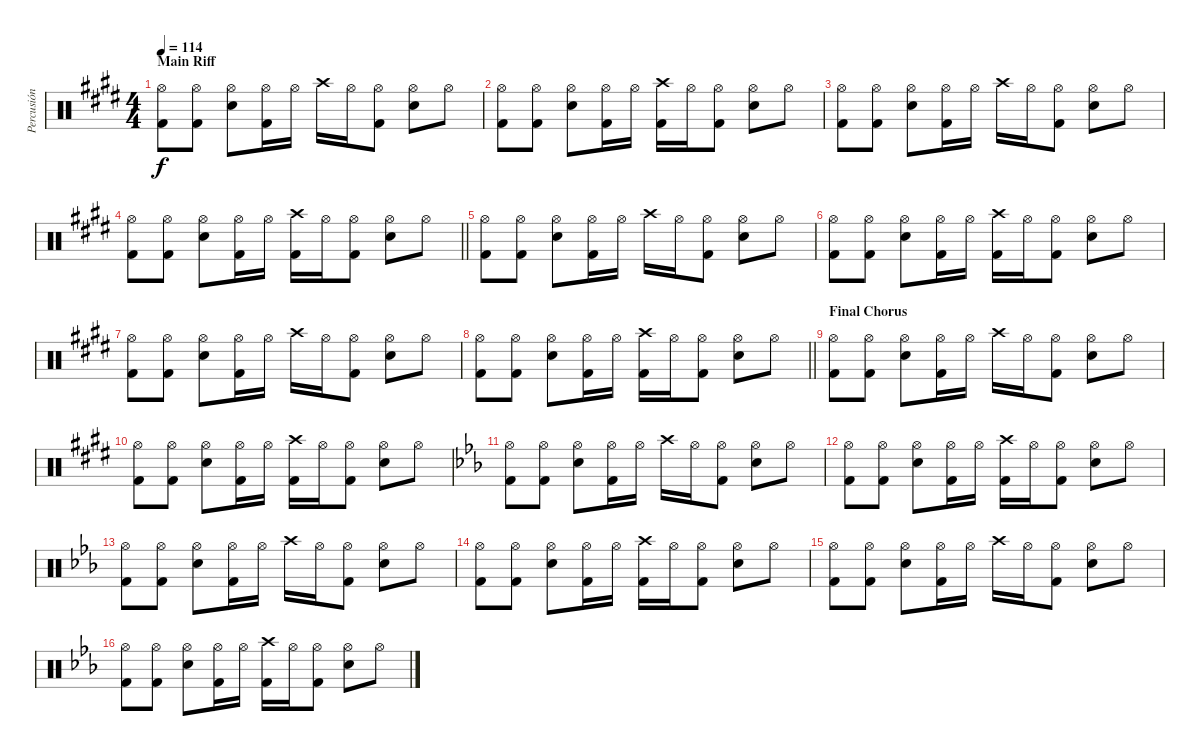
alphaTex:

\track ("Percusión" "Percusión") {instrument percussion}
\staff {score}
\articulation defaults
\ts (4 4)
\section ("" "Main Riff")
\tempo 114
\clef neutral
\ks c#minor
("Hi-Hat (open)" "Kick (hit) 2").8{dy f} ("Hi-Hat (open)" "Kick (hit) 2").8 ("Hi-Hat (open)" "Snare (hit) 2").8 ("Hi-Hat (open)" "Kick (hit) 2").16 "Hi-Hat (open)".16 "Crash high (hit)".16 "Hi-Hat (open)".16 ("Hi-Hat (open)" "Kick (hit) 2").8 ("Hi-Hat (open)" "Snare (hit) 2").8 "Hi-Hat (open)".8 |
("Hi-Hat (open)" "Kick (hit) 2").8 ("Hi-Hat (open)" "Kick (hit) 2").8 ("Hi-Hat (open)" "Snare (hit) 2").8 ("Hi-Hat (open)" "Kick (hit) 2").16 "Hi-Hat (open)".16 ("Crash high (hit)" "Kick (hit) 2").16 "Hi-Hat (open)".16 ("Hi-Hat (open)" "Kick (hit) 2").8 ("Hi-Hat (open)" "Snare (hit) 2").8 "Hi-Hat (open)".8 |
\ks e
("Hi-Hat (open)" "Kick (hit) 2").8 ("Hi-Hat (open)" "Kick (hit) 2").8 ("Hi-Hat (open)" "Snare (hit) 2").8 ("Hi-Hat (open)" "Kick (hit) 2").16 "Hi-Hat (open)".16 "Crash high (hit)".16 "Hi-Hat (open)".16 ("Hi-Hat (open)" "Kick (hit) 2").8 ("Hi-Hat (open)" "Snare (hit) 2").8 "Hi-Hat (open)".8 |
\barLineRight lightlight
\ks c#minor
("Hi-Hat (open)" "Kick (hit) 2").8 ("Hi-Hat (open)" "Kick (hit) 2").8 ("Hi-Hat (open)" "Snare (hit) 2").8 ("Hi-Hat (open)" "Kick (hit) 2").16 "Hi-Hat (open)".16 ("Crash high (hit)" "Kick (hit) 2").16 "Hi-Hat (open)".16 ("Hi-Hat (open)" "Kick (hit) 2").8 ("Hi-Hat (open)" "Snare (hit) 2").8 "Hi-Hat (open)".8 |
("Hi-Hat (open)" "Kick (hit) 2").8 ("Hi-Hat (open)" "Kick (hit) 2").8 ("Hi-Hat (open)" "Snare (hit) 2").8 ("Hi-Hat (open)" "Kick (hit) 2").16 "Hi-Hat (open)".16 "Crash high (hit)".16 "Hi-Hat (open)".16 ("Hi-Hat (open)" "Kick (hit) 2").8 ("Hi-Hat (open)" "Snare (hit) 2").8 "Hi-Hat (open)".8 |
("Hi-Hat (open)" "Kick (hit) 2").8 ("Hi-Hat (open)" "Kick (hit) 2").8 ("Hi-Hat (open)" "Snare (hit) 2").8 ("Hi-Hat (open)" "Kick (hit) 2").16 "Hi-Hat (open)".16 ("Crash high (hit)" "Kick (hit) 2").16 "Hi-Hat (open)".16 ("Hi-Hat (open)" "Kick (hit) 2").8 ("Hi-Hat (open)" "Snare (hit) 2").8 "Hi-Hat (open)".8 |
\ks e
("Hi-Hat (open)" "Kick (hit) 2").8 ("Hi-Hat (open)" "Kick (hit) 2").8 ("Hi-Hat (open)" "Snare (hit) 2").8 ("Hi-Hat (open)" "Kick (hit) 2").16 "Hi-Hat (open)".16 "Crash high (hit)".16 "Hi-Hat (open)".16 ("Hi-Hat (open)" "Kick (hit) 2").8 ("Hi-Hat (open)" "Snare (hit) 2").8 "Hi-Hat (open)".8 |
\barLineRight lightlight
\ks c#minor
("Hi-Hat (open)" "Kick (hit) 2").8 ("Hi-Hat (open)" "Kick (hit) 2").8 ("Hi-Hat (open)" "Snare (hit) 2").8 ("Hi-Hat (open)" "Kick (hit) 2").16 "Hi-Hat (open)".16 ("Crash high (hit)" "Kick (hit) 2").16 "Hi-Hat (open)".16 ("Hi-Hat (open)" "Kick (hit) 2").8 ("Hi-Hat (open)" "Snare (hit) 2").8 "Hi-Hat (open)".8 |
\section ("" "Final Chorus")
\ks e
("Hi-Hat (open)" "Kick (hit) 2").8 ("Hi-Hat (open)" "Kick (hit) 2").8 ("Hi-Hat (open)" "Snare (hit) 2").8 ("Hi-Hat (open)" "Kick (hit) 2").16 "Hi-Hat (open)".16 "Crash high (hit)".16 "Hi-Hat (open)".16 ("Hi-Hat (open)" "Kick (hit) 2").8 ("Hi-Hat (open)" "Snare (hit) 2").8 "Hi-Hat (open)".8 |
\ks c#minor
("Hi-Hat (open)" "Kick (hit) 2").8 ("Hi-Hat (open)" "Kick (hit) 2").8 ("Hi-Hat (open)" "Snare (hit) 2").8 ("Hi-Hat (open)" "Kick (hit) 2").16 "Hi-Hat (open)".16 ("Crash high (hit)" "Kick (hit) 2").16 "Hi-Hat (open)".16 ("Hi-Hat (open)" "Kick (hit) 2").8 ("Hi-Hat (open)" "Snare (hit) 2").8 "Hi-Hat (open)".8 |
\ks eb
("Hi-Hat (open)" "Kick (hit) 2").8 ("Hi-Hat (open)" "Kick (hit) 2").8 ("Hi-Hat (open)" "Snare (hit) 2").8 ("Hi-Hat (open)" "Kick (hit) 2").16 "Hi-Hat (open)".16 "Crash high (hit)".16 "Hi-Hat (open)".16 ("Hi-Hat (open)" "Kick (hit) 2").8 ("Hi-Hat (open)" "Snare (hit) 2").8 "Hi-Hat (open)".8 |
("Hi-Hat (open)" "Kick (hit) 2").8 ("Hi-Hat (open)" "Kick (hit) 2").8 ("Hi-Hat (open)" "Snare (hit) 2").8 ("Hi-Hat (open)" "Kick (hit) 2").16 "Hi-Hat (open)".16 ("Crash high (hit)" "Kick (hit) 2").16 "Hi-Hat (open)".16 ("Hi-Hat (open)" "Kick (hit) 2").8 ("Hi-Hat (open)" "Snare (hit) 2").8 "Hi-Hat (open)".8 |
("Hi-Hat (open)" "Kick (hit) 2").8 ("Hi-Hat (open)" "Kick (hit) 2").8 ("Hi-Hat (open)" "Snare (hit) 2").8 ("Hi-Hat (open)" "Kick (hit) 2").16 "Hi-Hat (open)".16 "Crash high (hit)".16 "Hi-Hat (open)".16 ("Hi-Hat (open)" "Kick (hit) 2").8 ("Hi-Hat (open)" "Snare (hit) 2").8 "Hi-Hat (open)".8 |
("Hi-Hat (open)" "Kick (hit) 2").8 ("Hi-Hat (open)" "Kick (hit) 2").8 ("Hi-Hat (open)" "Snare (hit) 2").8 ("Hi-Hat (open)" "Kick (hit) 2").16 "Hi-Hat (open)".16 ("Crash high (hit)" "Kick (hit) 2").16 "Hi-Hat (open)".16 ("Hi-Hat (open)" "Kick (hit) 2").8 ("Hi-Hat (open)" "Snare (hit) 2").8 "Hi-Hat (open)".8 |
("Hi-Hat (open)" "Kick (hit) 2").8 ("Hi-Hat (open)" "Kick (hit) 2").8 ("Hi-Hat (open)" "Snare (hit) 2").8 ("Hi-Hat (open)" "Kick (hit) 2").16 "Hi-Hat (open)".16 "Crash high (hit)".16 "Hi-Hat (open)".16 ("Hi-Hat (open)" "Kick (hit) 2").8 ("Hi-Hat (open)" "Snare (hit) 2").8 "Hi-Hat (open)".8 |
("Hi-Hat (open)" "Kick (hit) 2").8 ("Hi-Hat (open)" "Kick (hit) 2").8 ("Hi-Hat (open)" "Snare (hit) 2").8 ("Hi-Hat (open)" "Kick (hit) 2").16 "Hi-Hat (open)".16 ("Crash high (hit)" "Kick (hit) 2").16 "Hi-Hat (open)".16 ("Hi-Hat (open)" "Kick (hit) 2").8 ("Hi-Hat (open)" "Snare (hit) 2").8 "Hi-Hat (open)".8
